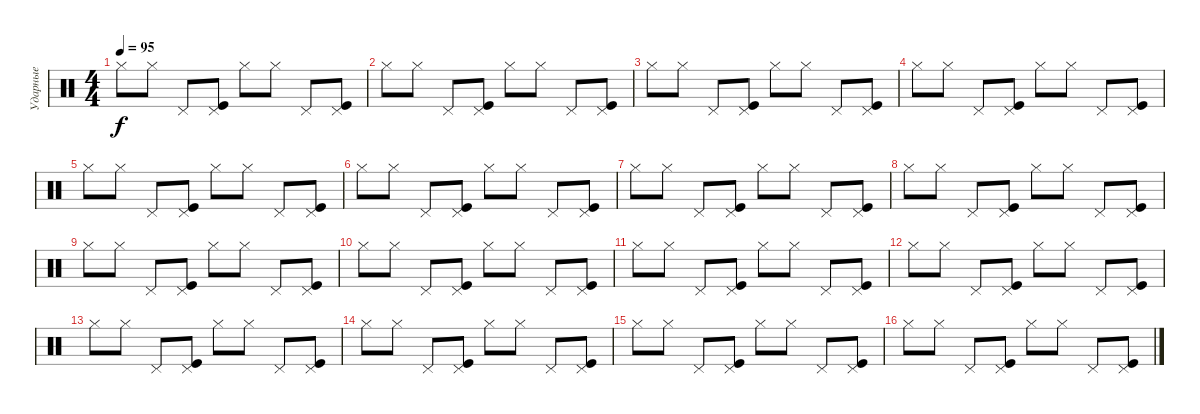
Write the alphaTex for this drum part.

\track ("Ударные" "Ударные") {instrument percussion}
\staff {score}
\articulation defaults
\ts (4 4)
\tempo 95
\clef neutral
\ks c "Hi-Hat (closed)".8{dy f} "Hi-Hat (closed)".8 "Pedal Hi-Hat (hit)".8
("Kick (hit)" "Pedal Hi-Hat (hit)").8 "Hi-Hat (closed)".8 "Hi-Hat (closed)".8 "Pedal Hi-Hat (hit)".8 ("Kick (hit)" "Pedal Hi-Hat (hit)").8 |
"Hi-Hat (closed)".8 "Hi-Hat (closed)".8 "Pedal Hi-Hat (hit)".8 ("Kick (hit)" "Pedal Hi-Hat (hit)").8 "Hi-Hat (closed)".8 "Hi-Hat (closed)".8 "Pedal Hi-Hat (hit)".8 ("Kick (hit)" "Pedal Hi-Hat (hit)").8 |
"Hi-Hat (closed)".8 "Hi-Hat (closed)".8 "Pedal Hi-Hat (hit)".8 ("Kick (hit)" "Pedal Hi-Hat (hit)").8 "Hi-Hat (closed)".8 "Hi-Hat (closed)".8 "Pedal Hi-Hat (hit)".8 ("Kick (hit)" "Pedal Hi-Hat (hit)").8 |
"Hi-Hat (closed)".8 "Hi-Hat (closed)".8 "Pedal Hi-Hat (hit)".8 ("Kick (hit)" "Pedal Hi-Hat (hit)").8 "Hi-Hat (closed)".8 "Hi-Hat (closed)".8 "Pedal Hi-Hat (hit)".8 ("Kick (hit)" "Pedal Hi-Hat (hit)").8 |
"Hi-Hat (closed)".8 "Hi-Hat (closed)".8 "Pedal Hi-Hat (hit)".8 ("Kick (hit)" "Pedal Hi-Hat (hit)").8 "Hi-Hat (closed)".8 "Hi-Hat (closed)".8 "Pedal Hi-Hat (hit)".8 ("Kick (hit)" "Pedal Hi-Hat (hit)").8 |
"Hi-Hat (closed)".8 "Hi-Hat (closed)".8 "Pedal Hi-Hat (hit)".8 ("Kick (hit)" "Pedal Hi-Hat (hit)").8 "Hi-Hat (closed)".8 "Hi-Hat (closed)".8 "Pedal Hi-Hat (hit)".8 ("Kick (hit)" "Pedal Hi-Hat (hit)").8 |
"Hi-Hat (closed)".8 "Hi-Hat (closed)".8 "Pedal Hi-Hat (hit)".8 ("Kick (hit)" "Pedal Hi-Hat (hit)").8 "Hi-Hat (closed)".8 "Hi-Hat (closed)".8 "Pedal Hi-Hat (hit)".8 ("Kick (hit)" "Pedal Hi-Hat (hit)").8 |
"Hi-Hat (closed)".8 "Hi-Hat (closed)".8 "Pedal Hi-Hat (hit)".8 ("Kick (hit)" "Pedal Hi-Hat (hit)").8 "Hi-Hat (closed)".8 "Hi-Hat (closed)".8 "Pedal Hi-Hat (hit)".8 ("Kick (hit)" "Pedal Hi-Hat (hit)").8 |
"Hi-Hat (closed)".8 "Hi-Hat (closed)".8 "Pedal Hi-Hat (hit)".8 ("Kick (hit)" "Pedal Hi-Hat (hit)").8 "Hi-Hat (closed)".8 "Hi-Hat (closed)".8 "Pedal Hi-Hat (hit)".8 ("Kick (hit)" "Pedal Hi-Hat (hit)").8 |
"Hi-Hat (closed)".8 "Hi-Hat (closed)".8 "Pedal Hi-Hat (hit)".8 ("Kick (hit)" "Pedal Hi-Hat (hit)").8 "Hi-Hat (closed)".8 "Hi-Hat (closed)".8 "Pedal Hi-Hat (hit)".8 ("Kick (hit)" "Pedal Hi-Hat (hit)").8 |
"Hi-Hat (closed)".8 "Hi-Hat (closed)".8 "Pedal Hi-Hat (hit)".8 ("Kick (hit)" "Pedal Hi-Hat (hit)").8 "Hi-Hat (closed)".8 "Hi-Hat (closed)".8 "Pedal Hi-Hat (hit)".8 ("Kick (hit)" "Pedal Hi-Hat (hit)").8 |
"Hi-Hat (closed)".8 "Hi-Hat (closed)".8 "Pedal Hi-Hat (hit)".8 ("Kick (hit)" "Pedal Hi-Hat (hit)").8 "Hi-Hat (closed)".8 "Hi-Hat (closed)".8 "Pedal Hi-Hat (hit)".8 ("Kick (hit)" "Pedal Hi-Hat (hit)").8 |
"Hi-Hat (closed)".8 "Hi-Hat (closed)".8 "Pedal Hi-Hat (hit)".8 ("Kick (hit)" "Pedal Hi-Hat (hit)").8 "Hi-Hat (closed)".8 "Hi-Hat (closed)".8 "Pedal Hi-Hat (hit)".8 ("Kick (hit)" "Pedal Hi-Hat (hit)").8 |
"Hi-Hat (closed)".8 "Hi-Hat (closed)".8 "Pedal Hi-Hat (hit)".8 ("Kick (hit)" "Pedal Hi-Hat (hit)").8 "Hi-Hat (closed)".8 "Hi-Hat (closed)".8 "Pedal Hi-Hat (hit)".8 ("Kick (hit)" "Pedal Hi-Hat (hit)").8 |
"Hi-Hat (closed)".8 "Hi-Hat (closed)".8 "Pedal Hi-Hat (hit)".8 ("Kick (hit)" "Pedal Hi-Hat (hit)").8 "Hi-Hat (closed)".8 "Hi-Hat (closed)".8 "Pedal Hi-Hat (hit)".8 ("Kick (hit)" "Pedal Hi-Hat (hit)").8 |
"Hi-Hat (closed)".8 "Hi-Hat (closed)".8 "Pedal Hi-Hat (hit)".8 ("Kick (hit)" "Pedal Hi-Hat (hit)").8 "Hi-Hat (closed)".8 "Hi-Hat (closed)".8 "Pedal Hi-Hat (hit)".8 ("Kick (hit)" "Pedal Hi-Hat (hit)").8
